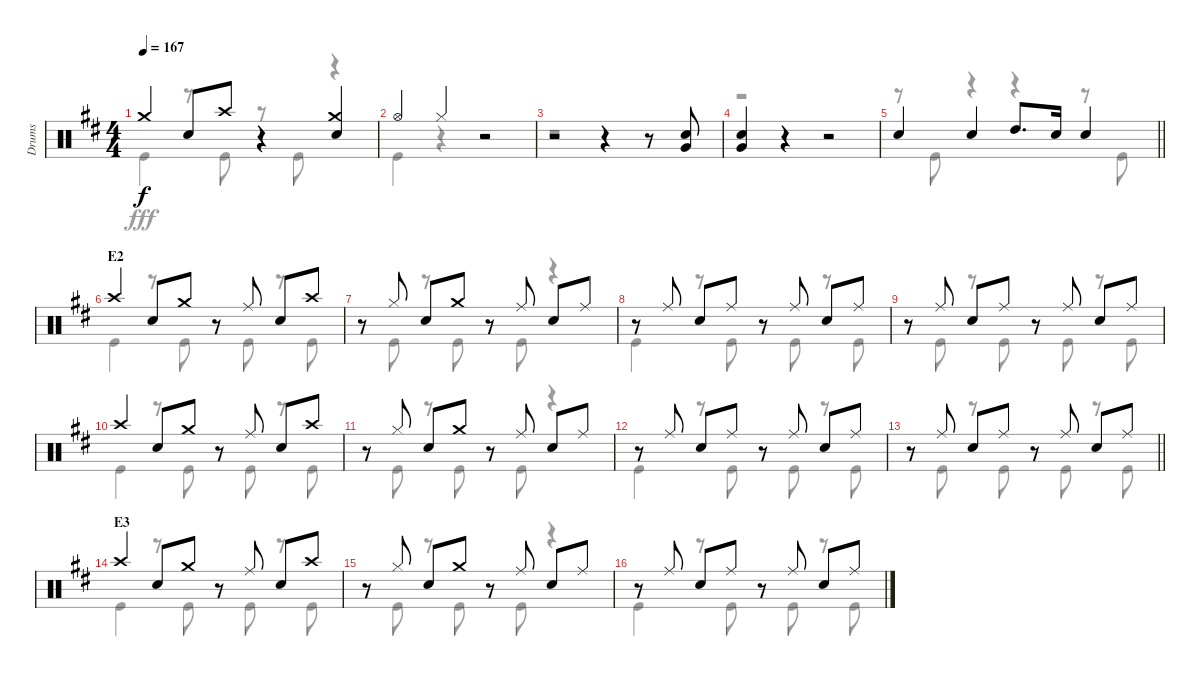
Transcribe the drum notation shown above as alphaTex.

\track ("Drums" "Drums") {instrument percussion}
\staff {score}
\articulation defaults
\voice
\ts (4 4)
\tempo 167
\clef neutral
\ks d "Crash medium (hit)".4{dy f} "Snare (hit) 2".8 "Crash high (hit)".8
r.4 ("Crash medium (hit)" "Snare (hit) 2").4 |
"Hi-Hat (open)".4 "Hi-Hat (closed)".4 r.2 |
r.2 r.4 r.8 ("Snare (hit) 2" "Very Low Tom (hit)").8 |
("Snare (hit) 2" "Very Low Tom (hit)").4 r.4 r.2 |
\barLineRight lightlight "Snare (hit) 2".4 "Snare (hit) 2".4 "High Tom (hit)".8{d} "Snare (hit) 2".16 "Snare (hit) 2".4
|
\section ("" "E2")
"Crash high (hit)".4 "Snare (hit) 2".8 "Crash medium (hit)".8 r.8 "Ride (middle)".8 "Snare (hit) 2".8 "Crash high (hit)".8 |
r.8 "Hi-Hat (closed)".8 "Snare (hit) 2".8 "Crash medium (hit)".8 r.8 "Ride (middle)".8 "Snare (hit) 2".8 "Ride (middle)".8 |
r.8 "Ride (middle)".8 "Snare (hit) 2".8 "Ride (middle)".8 r.8 "Ride (middle)".8 "Snare (hit) 2".8 "Ride (middle)".8 |
r.8 "Ride (middle)".8 "Snare (hit) 2".8 "Ride (middle)".8 r.8 "Ride (middle)".8 "Snare (hit) 2".8 "Ride (middle)".8 |
"Crash high (hit)".4 "Snare (hit) 2".8 "Crash medium (hit)".8 r.8 "Ride (middle)".8 "Snare (hit) 2".8 "Crash high (hit)".8 |
r.8 "Hi-Hat (closed)".8 "Snare (hit) 2".8 "Crash medium (hit)".8 r.8 "Ride (middle)".8 "Snare (hit) 2".8 "Ride (middle)".8 |
r.8 "Ride (middle)".8 "Snare (hit) 2".8 "Ride (middle)".8 r.8 "Ride (middle)".8 "Snare (hit) 2".8 "Ride (middle)".8 |
\barLineRight lightlight
r.8 "Ride (middle)".8 "Snare (hit) 2".8 "Ride (middle)".8 r.8 "Ride (middle)".8 "Snare (hit) 2".8 "Ride (middle)".8 |
\section ("" "E3")
"Crash high (hit)".4 "Snare (hit) 2".8 "Crash medium (hit)".8 r.8 "Ride (middle)".8 "Snare (hit) 2".8 "Crash high (hit)".8 |
r.8 "Hi-Hat (closed)".8 "Snare (hit) 2".8 "Crash medium (hit)".8 r.8 "Ride (middle)".8 "Snare (hit) 2".8 "Ride (middle)".8 |
r.8 "Ride (middle)".8 "Snare (hit) 2".8 "Ride (middle)".8 r.8 "Ride (middle)".8 "Snare (hit) 2".8 "Ride (middle)".8
\voice
\clef neutral
\ottava regular
\simile none
\ks d "Kick (hit)".4{dy fff}
r.8 "Kick (hit)".8 r.8 "Kick (hit)".8 r.4 |
"Kick (hit)".4 r.4 r.2 |
r.1 |
r.1 |
\barLineRight lightlight
r.8 "Kick (hit)".8 r.4 r.4 r.8 "Kick (hit)".8 |
"Kick (hit)".4 r.8 "Kick (hit)".8 r.8 "Kick (hit)".8 r.8 "Kick (hit)".8 |
r.8 "Kick (hit)".8 r.8 "Kick (hit)".8 r.8 "Kick (hit)".8 r.4 |
"Kick (hit)".4 r.8 "Kick (hit)".8 r.8 "Kick (hit)".8 r.8 "Kick (hit)".8 |
r.8 "Kick (hit)".8 r.8 "Kick (hit)".8 r.8 "Kick (hit)".8 r.8 "Kick (hit)".8 |
"Kick (hit)".4 r.8 "Kick (hit)".8 r.8 "Kick (hit)".8 r.8 "Kick (hit)".8 |
r.8 "Kick (hit)".8 r.8 "Kick (hit)".8 r.8 "Kick (hit)".8 r.4 |
"Kick (hit)".4 r.8 "Kick (hit)".8 r.8 "Kick (hit)".8 r.8 "Kick (hit)".8 |
\barLineRight lightlight
r.8 "Kick (hit)".8 r.8 "Kick (hit)".8 r.8 "Kick (hit)".8 r.8 "Kick (hit)".8 |
"Kick (hit)".4 r.8 "Kick (hit)".8 r.8 "Kick (hit)".8 r.8 "Kick (hit)".8 |
r.8 "Kick (hit)".8 r.8 "Kick (hit)".8 r.8 "Kick (hit)".8 r.4 |
"Kick (hit)".4 r.8 "Kick (hit)".8 r.8 "Kick (hit)".8 r.8 "Kick (hit)".8
